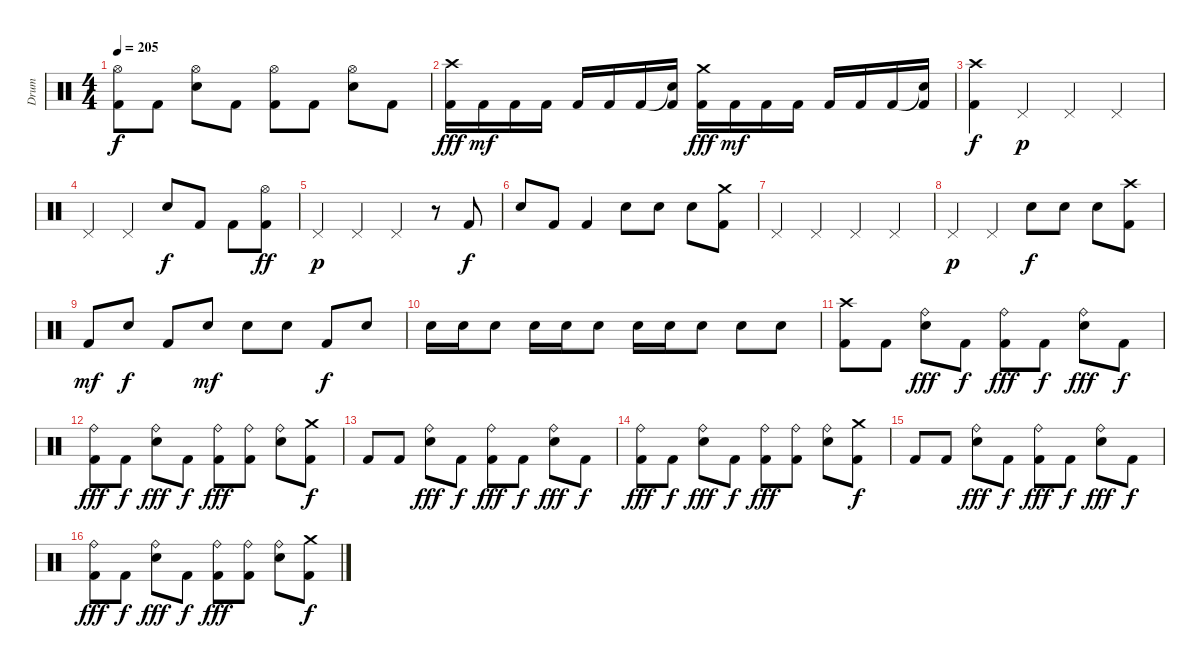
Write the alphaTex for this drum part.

\track ("Drum" "Drum") {instrument percussion}
\staff {score}
\articulation defaults
\ts (4 4)
\tempo 205
\clef neutral
\ks c
("Kick (hit) 2" "Hi-Hat (open)").8{dy f} "Kick (hit) 2".8 ("Electric Snare (hit)" "Hi-Hat (open)").8 "Kick (hit) 2".8 ("Kick (hit) 2" "Hi-Hat (open)").8 "Kick (hit) 2".8 ("Electric Snare (hit)" "Hi-Hat (open)").8 "Kick (hit) 2".8 |
("Crash high (hit)" "Kick (hit) 2").16{dy fff} "Kick (hit) 2".16{dy mf} "Kick (hit) 2".16 "Kick (hit) 2".16 "Kick (hit) 2".16 "Kick (hit) 2".16 "Kick (hit) 2".16 ("Snare (hit)"{t} "Kick (hit) 2").16 ("Crash medium (hit)" "Kick (hit) 2").16{dy fff} "Kick (hit) 2".16{dy mf} "Kick (hit) 2".16 "Kick (hit) 2".16 "Kick (hit) 2".16 "Kick (hit) 2".16 "Kick (hit) 2".16 ("Snare (hit)"{t} "Kick (hit) 2").16 |
("Crash high (hit)" "Kick (hit) 2").4{dy f} "Pedal Hi-Hat (hit)".4{dy p} "Pedal Hi-Hat (hit)".4 "Pedal Hi-Hat (hit)".4 |
"Pedal Hi-Hat (hit)".4 "Pedal Hi-Hat (hit)".4 "Electric Snare (hit)".8{dy f} "Kick (hit) 2".8 "Kick (hit) 2".8 ("Hi-Hat (open)" "Kick (hit) 2").8{dy ff} |
"Pedal Hi-Hat (hit)".4{dy p} "Pedal Hi-Hat (hit)".4 "Pedal Hi-Hat (hit)".4 r.8 "Kick (hit) 2".8{dy f} |
"Electric Snare (hit)".8 "Kick (hit) 2".8 "Kick (hit) 2".4 "Electric Snare (hit)".8 "Electric Snare (hit)".8 "Electric Snare (hit)".8 ("Crash medium (hit)" "Kick (hit) 2").8 |
"Pedal Hi-Hat (hit)".4 "Pedal Hi-Hat (hit)".4 "Pedal Hi-Hat (hit)".4 "Pedal Hi-Hat (hit)".4 |
"Pedal Hi-Hat (hit)".4{dy p} "Pedal Hi-Hat (hit)".4 "Electric Snare (hit)".8{dy f} "Electric Snare (hit)".8 "Electric Snare (hit)".8 ("Crash high (hit)" "Kick (hit) 2").8 |
"Kick (hit) 2".8{dy mf} "Electric Snare (hit)".8{dy f} "Kick (hit) 2".8 "Electric Snare (hit)".8{dy mf} "Electric Snare (hit)".8 "Electric Snare (hit)".8 "Kick (hit) 2".8{dy f} "Electric Snare (hit)".8 |
"Electric Snare (hit)".16 "Electric Snare (hit)".16 "Electric Snare (hit)".8 "Electric Snare (hit)".16 "Electric Snare (hit)".16 "Electric Snare (hit)".8 "Electric Snare (hit)".16 "Electric Snare (hit)".16 "Electric Snare (hit)".8 "Electric Snare (hit)".8 "Electric Snare (hit)".8 |
("Kick (hit) 2" "Crash high (hit)").8 "Kick (hit) 2".8 ("Electric Snare (hit)" "Ride (bell)").8{dy fff} "Kick (hit) 2".8{dy f} ("Kick (hit) 2" "Ride (bell)").8{dy fff} "Kick (hit) 2".8{dy f} ("Electric Snare (hit)" "Ride (bell)").8{dy fff} "Kick (hit) 2".8{dy f} |
("Kick (hit) 2" "Ride (bell)").8{dy fff} "Kick (hit) 2".8{dy f} ("Electric Snare (hit)" "Ride (bell)").8{dy fff} "Kick (hit) 2".8{dy f} ("Kick (hit) 2" "Ride (bell)").8{dy fff} ("Kick (hit) 2" "Ride (bell)").8 ("Electric Snare (hit)" "Ride (bell)").8 ("Kick (hit) 2" "Crash medium (hit)").8{dy f} |
"Kick (hit) 2".8 "Kick (hit) 2".8 ("Electric Snare (hit)" "Ride (bell)").8{dy fff} "Kick (hit) 2".8{dy f} ("Kick (hit) 2" "Ride (bell)").8{dy fff} "Kick (hit) 2".8{dy f} ("Electric Snare (hit)" "Ride (bell)").8{dy fff} "Kick (hit) 2".8{dy f} |
("Kick (hit) 2" "Ride (bell)").8{dy fff} "Kick (hit) 2".8{dy f} ("Electric Snare (hit)" "Ride (bell)").8{dy fff} "Kick (hit) 2".8{dy f} ("Kick (hit) 2" "Ride (bell)").8{dy fff} ("Kick (hit) 2" "Ride (bell)").8 ("Electric Snare (hit)" "Ride (bell)").8 ("Kick (hit) 2" "Crash medium (hit)").8{dy f} |
"Kick (hit) 2".8 "Kick (hit) 2".8 ("Electric Snare (hit)" "Ride (bell)").8{dy fff} "Kick (hit) 2".8{dy f} ("Kick (hit) 2" "Ride (bell)").8{dy fff} "Kick (hit) 2".8{dy f} ("Electric Snare (hit)" "Ride (bell)").8{dy fff} "Kick (hit) 2".8{dy f} |
("Kick (hit) 2" "Ride (bell)").8{dy fff} "Kick (hit) 2".8{dy f} ("Electric Snare (hit)" "Ride (bell)").8{dy fff} "Kick (hit) 2".8{dy f} ("Kick (hit) 2" "Ride (bell)").8{dy fff} ("Kick (hit) 2" "Ride (bell)").8 ("Electric Snare (hit)" "Ride (bell)").8 ("Kick (hit) 2" "Crash medium (hit)").8{dy f}
